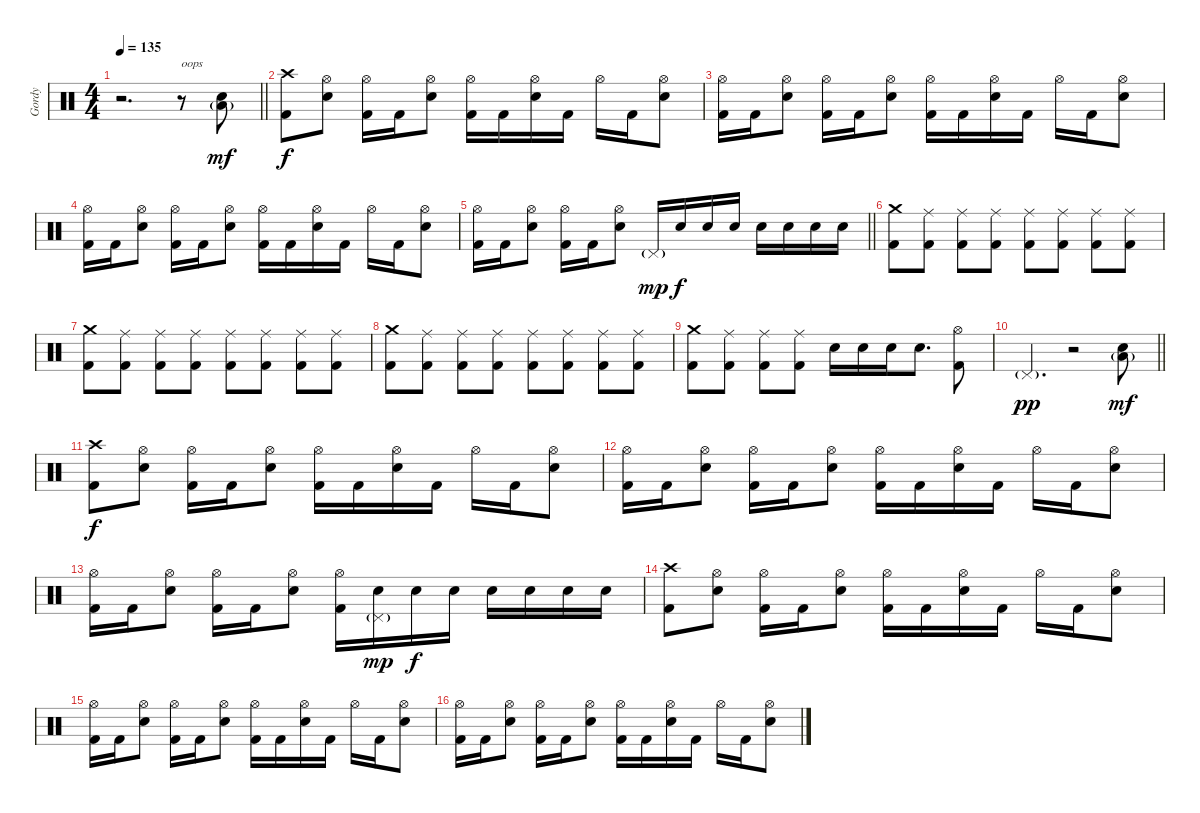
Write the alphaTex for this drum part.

\track ("Gordy" "Gordy") {instrument percussion}
\staff {score}
\articulation defaults
\ts (4 4)
\tempo 135
\clef neutral
\barLineRight lightlight
\ks c
r.2{d dy mf} r.8{txt "oops"} ("Electric Snare (hit)" "Low Floor Tom (hit)"{g}).8 |
\section ("" "")
("Crash high (hit)" "Kick (hit) 2").8{dy f} ("Hi-Hat (open)" "Electric Snare (hit)").8 ("Hi-Hat (open)" "Kick (hit) 2").16 "Kick (hit) 2".16 ("Hi-Hat (open)" "Electric Snare (hit)").8 ("Hi-Hat (open)" "Kick (hit) 2").16 "Kick (hit) 2".16 ("Hi-Hat (open)" "Electric Snare (hit)").16 "Kick (hit) 2".16 "Hi-Hat (open)".16 "Kick (hit) 2".16 ("Hi-Hat (open)" "Electric Snare (hit)").8 |
("Hi-Hat (open)" "Kick (hit) 2").16 "Kick (hit) 2".16 ("Hi-Hat (open)" "Electric Snare (hit)").8 ("Hi-Hat (open)" "Kick (hit) 2").16 "Kick (hit) 2".16 ("Hi-Hat (open)" "Electric Snare (hit)").8 ("Hi-Hat (open)" "Kick (hit) 2").16 "Kick (hit) 2".16 ("Hi-Hat (open)" "Electric Snare (hit)").16 "Kick (hit) 2".16 "Hi-Hat (open)".16 "Kick (hit) 2".16 ("Hi-Hat (open)" "Electric Snare (hit)").8 |
("Hi-Hat (open)" "Kick (hit) 2").16 "Kick (hit) 2".16 ("Hi-Hat (open)" "Electric Snare (hit)").8 ("Hi-Hat (open)" "Kick (hit) 2").16 "Kick (hit) 2".16 ("Hi-Hat (open)" "Electric Snare (hit)").8 ("Hi-Hat (open)" "Kick (hit) 2").16 "Kick (hit) 2".16 ("Hi-Hat (open)" "Electric Snare (hit)").16 "Kick (hit) 2".16 "Hi-Hat (open)".16 "Kick (hit) 2".16 ("Hi-Hat (open)" "Electric Snare (hit)").8 |
\barLineRight lightlight
("Hi-Hat (open)" "Kick (hit) 2").16 "Kick (hit) 2".16 ("Hi-Hat (open)" "Electric Snare (hit)").8 ("Hi-Hat (open)" "Kick (hit) 2").16 "Kick (hit) 2".16 ("Hi-Hat (open)" "Electric Snare (hit)").8 "Pedal Hi-Hat (hit)"{g}.16{dy mp} "Electric Snare (hit)".16{dy f} "Electric Snare (hit)".16 "Electric Snare (hit)".16 "Electric Snare (hit)".16 "Electric Snare (hit)".16 "Electric Snare (hit)".16 "Electric Snare (hit)".16 |
\section ("" "")
("Crash medium (hit)" "Kick (hit) 2").8 ("Ride (middle)" "Kick (hit) 2").8 ("Ride (middle)" "Kick (hit) 2").8 ("Ride (middle)" "Kick (hit) 2").8 ("Ride (middle)" "Kick (hit) 2").8 ("Ride (middle)" "Kick (hit) 2").8 ("Ride (middle)" "Kick (hit) 2").8 ("Ride (middle)" "Kick (hit) 2").8 |
("Crash medium (hit)" "Kick (hit) 2").8 ("Ride (middle)" "Kick (hit) 2").8 ("Ride (middle)" "Kick (hit) 2").8 ("Ride (middle)" "Kick (hit) 2").8 ("Ride (middle)" "Kick (hit) 2").8 ("Ride (middle)" "Kick (hit) 2").8 ("Ride (middle)" "Kick (hit) 2").8 ("Ride (middle)" "Kick (hit) 2").8 |
("Crash medium (hit)" "Kick (hit) 2").8 ("Ride (middle)" "Kick (hit) 2").8 ("Ride (middle)" "Kick (hit) 2").8 ("Ride (middle)" "Kick (hit) 2").8 ("Ride (middle)" "Kick (hit) 2").8 ("Ride (middle)" "Kick (hit) 2").8 ("Ride (middle)" "Kick (hit) 2").8 ("Ride (middle)" "Kick (hit) 2").8 |
("Crash medium (hit)" "Kick (hit) 2").8 ("Ride (middle)" "Kick (hit) 2").8 ("Ride (middle)" "Kick (hit) 2").8 ("Ride (middle)" "Kick (hit) 2").8 "Electric Snare (hit)".16 "Electric Snare (hit)".16 "Electric Snare (hit)".16 "Electric Snare (hit)".8{d} ("Hi-Hat (open)" "Kick (hit) 2").8 |
\barLineRight lightlight "Pedal Hi-Hat (hit)"{g}.4{d dy pp}
r.2 ("Electric Snare (hit)" "Low Floor Tom (hit)"{g}).8{dy mf} |
\section ("" "")
("Crash high (hit)" "Kick (hit) 2").8{dy f} ("Hi-Hat (open)" "Electric Snare (hit)").8 ("Hi-Hat (open)" "Kick (hit) 2").16 "Kick (hit) 2".16 ("Hi-Hat (open)" "Electric Snare (hit)").8 ("Hi-Hat (open)" "Kick (hit) 2").16 "Kick (hit) 2".16 ("Hi-Hat (open)" "Electric Snare (hit)").16 "Kick (hit) 2".16 "Hi-Hat (open)".16 "Kick (hit) 2".16 ("Hi-Hat (open)" "Electric Snare (hit)").8 |
("Hi-Hat (open)" "Kick (hit) 2").16 "Kick (hit) 2".16 ("Hi-Hat (open)" "Electric Snare (hit)").8 ("Hi-Hat (open)" "Kick (hit) 2").16 "Kick (hit) 2".16 ("Hi-Hat (open)" "Electric Snare (hit)").8 ("Hi-Hat (open)" "Kick (hit) 2").16 "Kick (hit) 2".16 ("Hi-Hat (open)" "Electric Snare (hit)").16 "Kick (hit) 2".16 "Hi-Hat (open)".16 "Kick (hit) 2".16 ("Hi-Hat (open)" "Electric Snare (hit)").8 |
("Hi-Hat (open)" "Kick (hit) 2").16 "Kick (hit) 2".16 ("Hi-Hat (open)" "Electric Snare (hit)").8 ("Hi-Hat (open)" "Kick (hit) 2").16 "Kick (hit) 2".16 ("Hi-Hat (open)" "Electric Snare (hit)").8 ("Hi-Hat (open)" "Kick (hit) 2").16 ("Pedal Hi-Hat (hit)"{g} "Electric Snare (hit)").16{dy mp} "Electric Snare (hit)".16{dy f} "Electric Snare (hit)".16 "Electric Snare (hit)".16 "Electric Snare (hit)".16 "Electric Snare (hit)".16 "Electric Snare (hit)".16 |
("Crash high (hit)" "Kick (hit) 2").8 ("Hi-Hat (open)" "Electric Snare (hit)").8 ("Hi-Hat (open)" "Kick (hit) 2").16 "Kick (hit) 2".16 ("Hi-Hat (open)" "Electric Snare (hit)").8 ("Hi-Hat (open)" "Kick (hit) 2").16 "Kick (hit) 2".16 ("Hi-Hat (open)" "Electric Snare (hit)").16 "Kick (hit) 2".16 "Hi-Hat (open)".16 "Kick (hit) 2".16 ("Hi-Hat (open)" "Electric Snare (hit)").8 |
("Hi-Hat (open)" "Kick (hit) 2").16 "Kick (hit) 2".16 ("Hi-Hat (open)" "Electric Snare (hit)").8 ("Hi-Hat (open)" "Kick (hit) 2").16 "Kick (hit) 2".16 ("Hi-Hat (open)" "Electric Snare (hit)").8 ("Hi-Hat (open)" "Kick (hit) 2").16 "Kick (hit) 2".16 ("Hi-Hat (open)" "Electric Snare (hit)").16 "Kick (hit) 2".16 "Hi-Hat (open)".16 "Kick (hit) 2".16 ("Hi-Hat (open)" "Electric Snare (hit)").8 |
("Hi-Hat (open)" "Kick (hit) 2").16 "Kick (hit) 2".16 ("Hi-Hat (open)" "Electric Snare (hit)").8 ("Hi-Hat (open)" "Kick (hit) 2").16 "Kick (hit) 2".16 ("Hi-Hat (open)" "Electric Snare (hit)").8 ("Hi-Hat (open)" "Kick (hit) 2").16 "Kick (hit) 2".16 ("Hi-Hat (open)" "Electric Snare (hit)").16 "Kick (hit) 2".16 "Hi-Hat (open)".16 "Kick (hit) 2".16 ("Hi-Hat (open)" "Electric Snare (hit)").8
